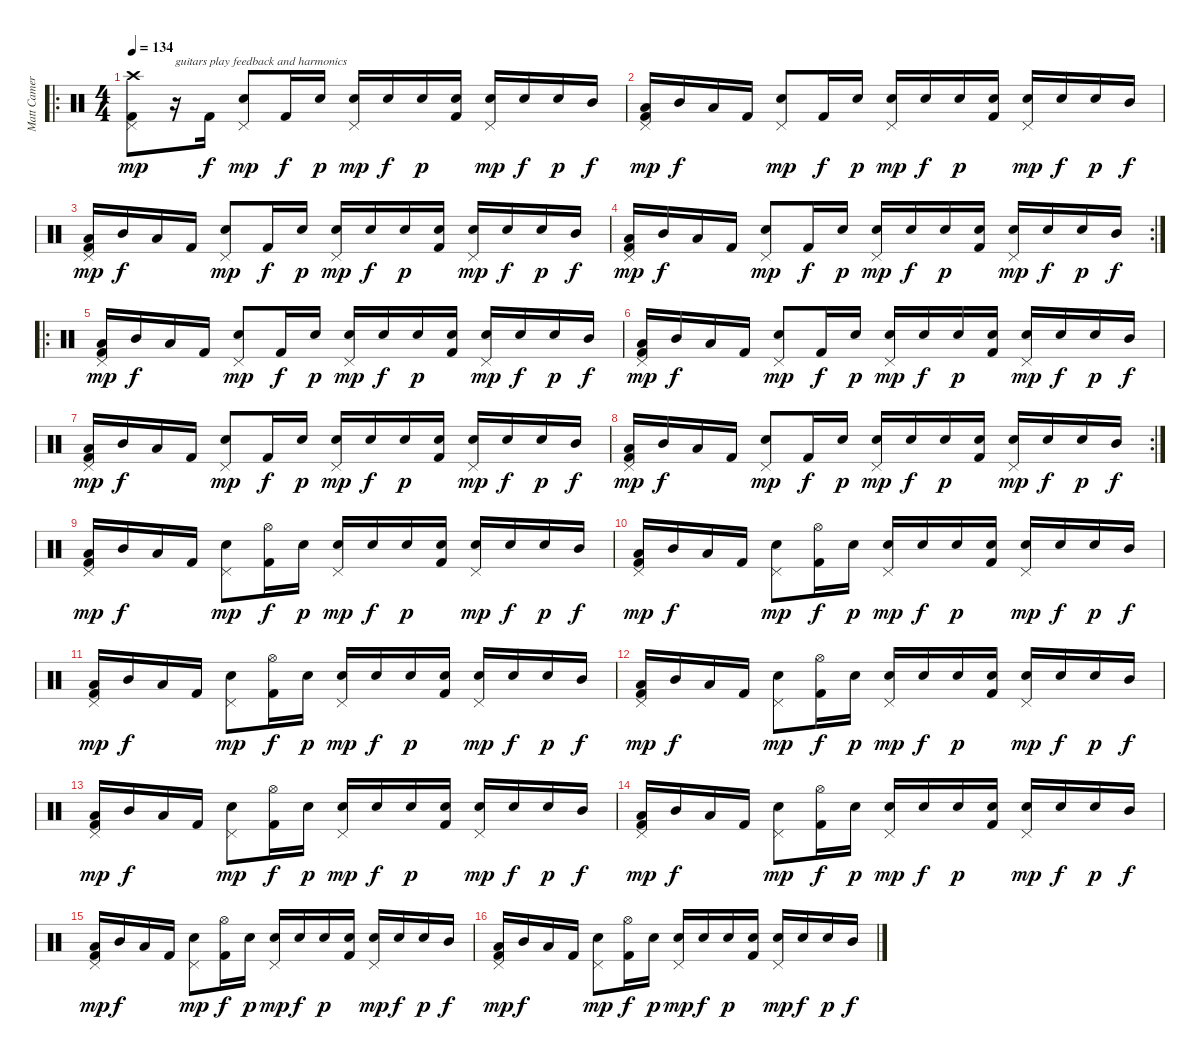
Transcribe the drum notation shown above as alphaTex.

\track ("Matt Cameron" "Matt Camer") {instrument percussion}
\staff {score}
\articulation defaults
\ro
\ts (4 4)
\tempo 134
\clef neutral
\ks c
("Crash high (hit)" "Pedal Hi-Hat (hit)" "Kick (hit) 2").8{dy mp} r.16{txt "guitars play feedback and harmonics"} "Kick (hit) 2".16{dy f} ("Electric Snare (hit)" "Pedal Hi-Hat (hit)").8{dy mp} "Kick (hit) 2".16{dy f} "Electric Snare (hit)".16{dy p} ("Electric Snare (hit)" "Pedal Hi-Hat (hit)").16{dy mp} "Electric Snare (hit)".16{dy f} "Electric Snare (hit)".16{dy p} ("Electric Snare (hit)" "Kick (hit) 2").16 ("Electric Snare (hit)" "Pedal Hi-Hat (hit)").16{dy mp} "Electric Snare (hit)".16{dy f} "Electric Snare (hit)".16{dy p} "Mid Tom (hit)".16{dy f} |
("Low Tom (hit)" "Pedal Hi-Hat (hit)" "Kick (hit) 2").16{dy mp} "Mid Tom (hit)".16{dy f} "Low Tom (hit)".16 "Kick (hit) 2".16 ("Electric Snare (hit)" "Pedal Hi-Hat (hit)").8{dy mp} "Kick (hit) 2".16{dy f} "Electric Snare (hit)".16{dy p} ("Electric Snare (hit)" "Pedal Hi-Hat (hit)").16{dy mp} "Electric Snare (hit)".16{dy f} "Electric Snare (hit)".16{dy p} ("Electric Snare (hit)" "Kick (hit) 2").16 ("Electric Snare (hit)" "Pedal Hi-Hat (hit)").16{dy mp} "Electric Snare (hit)".16{dy f} "Electric Snare (hit)".16{dy p} "Mid Tom (hit)".16{dy f} |
("Low Tom (hit)" "Pedal Hi-Hat (hit)" "Kick (hit) 2").16{dy mp} "Mid Tom (hit)".16{dy f} "Low Tom (hit)".16 "Kick (hit) 2".16 ("Electric Snare (hit)" "Pedal Hi-Hat (hit)").8{dy mp} "Kick (hit) 2".16{dy f} "Electric Snare (hit)".16{dy p} ("Electric Snare (hit)" "Pedal Hi-Hat (hit)").16{dy mp} "Electric Snare (hit)".16{dy f} "Electric Snare (hit)".16{dy p} ("Electric Snare (hit)" "Kick (hit) 2").16 ("Electric Snare (hit)" "Pedal Hi-Hat (hit)").16{dy mp} "Electric Snare (hit)".16{dy f} "Electric Snare (hit)".16{dy p} "Mid Tom (hit)".16{dy f} |
\rc 2
("Low Tom (hit)" "Pedal Hi-Hat (hit)" "Kick (hit) 2").16{dy mp} "Mid Tom (hit)".16{dy f} "Low Tom (hit)".16 "Kick (hit) 2".16 ("Electric Snare (hit)" "Pedal Hi-Hat (hit)").8{dy mp} "Kick (hit) 2".16{dy f} "Electric Snare (hit)".16{dy p} ("Electric Snare (hit)" "Pedal Hi-Hat (hit)").16{dy mp} "Electric Snare (hit)".16{dy f} "Electric Snare (hit)".16{dy p} ("Electric Snare (hit)" "Kick (hit) 2").16 ("Electric Snare (hit)" "Pedal Hi-Hat (hit)").16{dy mp} "Electric Snare (hit)".16{dy f} "Electric Snare (hit)".16{dy p} "Mid Tom (hit)".16{dy f} |
\ro
("Low Tom (hit)" "Pedal Hi-Hat (hit)" "Kick (hit) 2").16{dy mp} "Mid Tom (hit)".16{dy f} "Low Tom (hit)".16 "Kick (hit) 2".16 ("Electric Snare (hit)" "Pedal Hi-Hat (hit)").8{dy mp} "Kick (hit) 2".16{dy f} "Electric Snare (hit)".16{dy p} ("Electric Snare (hit)" "Pedal Hi-Hat (hit)").16{dy mp} "Electric Snare (hit)".16{dy f} "Electric Snare (hit)".16{dy p} ("Electric Snare (hit)" "Kick (hit) 2").16 ("Electric Snare (hit)" "Pedal Hi-Hat (hit)").16{dy mp} "Electric Snare (hit)".16{dy f} "Electric Snare (hit)".16{dy p} "Mid Tom (hit)".16{dy f} |
("Low Tom (hit)" "Pedal Hi-Hat (hit)" "Kick (hit) 2").16{dy mp} "Mid Tom (hit)".16{dy f} "Low Tom (hit)".16 "Kick (hit) 2".16 ("Electric Snare (hit)" "Pedal Hi-Hat (hit)").8{dy mp} "Kick (hit) 2".16{dy f} "Electric Snare (hit)".16{dy p} ("Electric Snare (hit)" "Pedal Hi-Hat (hit)").16{dy mp} "Electric Snare (hit)".16{dy f} "Electric Snare (hit)".16{dy p} ("Electric Snare (hit)" "Kick (hit) 2").16 ("Electric Snare (hit)" "Pedal Hi-Hat (hit)").16{dy mp} "Electric Snare (hit)".16{dy f} "Electric Snare (hit)".16{dy p} "Mid Tom (hit)".16{dy f} |
("Low Tom (hit)" "Pedal Hi-Hat (hit)" "Kick (hit) 2").16{dy mp} "Mid Tom (hit)".16{dy f} "Low Tom (hit)".16 "Kick (hit) 2".16 ("Electric Snare (hit)" "Pedal Hi-Hat (hit)").8{dy mp} "Kick (hit) 2".16{dy f} "Electric Snare (hit)".16{dy p} ("Electric Snare (hit)" "Pedal Hi-Hat (hit)").16{dy mp} "Electric Snare (hit)".16{dy f} "Electric Snare (hit)".16{dy p} ("Electric Snare (hit)" "Kick (hit) 2").16 ("Electric Snare (hit)" "Pedal Hi-Hat (hit)").16{dy mp} "Electric Snare (hit)".16{dy f} "Electric Snare (hit)".16{dy p} "Mid Tom (hit)".16{dy f} |
\rc 2
("Low Tom (hit)" "Pedal Hi-Hat (hit)" "Kick (hit) 2").16{dy mp} "Mid Tom (hit)".16{dy f} "Low Tom (hit)".16 "Kick (hit) 2".16 ("Electric Snare (hit)" "Pedal Hi-Hat (hit)").8{dy mp} "Kick (hit) 2".16{dy f} "Electric Snare (hit)".16{dy p} ("Electric Snare (hit)" "Pedal Hi-Hat (hit)").16{dy mp} "Electric Snare (hit)".16{dy f} "Electric Snare (hit)".16{dy p} ("Electric Snare (hit)" "Kick (hit) 2").16 ("Electric Snare (hit)" "Pedal Hi-Hat (hit)").16{dy mp} "Electric Snare (hit)".16{dy f} "Electric Snare (hit)".16{dy p} "Mid Tom (hit)".16{dy f} |
("Low Tom (hit)" "Pedal Hi-Hat (hit)" "Kick (hit) 2").16{dy mp} "Mid Tom (hit)".16{dy f} "Low Tom (hit)".16 "Kick (hit) 2".16 ("Electric Snare (hit)" "Pedal Hi-Hat (hit)").8{dy mp} ("Hi-Hat (open)" "Kick (hit) 2").16{dy f} "Electric Snare (hit)".16{dy p} ("Electric Snare (hit)" "Pedal Hi-Hat (hit)").16{dy mp} "Electric Snare (hit)".16{dy f} "Electric Snare (hit)".16{dy p} ("Electric Snare (hit)" "Kick (hit) 2").16 ("Electric Snare (hit)" "Pedal Hi-Hat (hit)").16{dy mp} "Electric Snare (hit)".16{dy f} "Electric Snare (hit)".16{dy p} "Mid Tom (hit)".16{dy f} |
("Low Tom (hit)" "Pedal Hi-Hat (hit)" "Kick (hit) 2").16{dy mp} "Mid Tom (hit)".16{dy f} "Low Tom (hit)".16 "Kick (hit) 2".16 ("Electric Snare (hit)" "Pedal Hi-Hat (hit)").8{dy mp} ("Hi-Hat (open)" "Kick (hit) 2").16{dy f} "Electric Snare (hit)".16{dy p} ("Electric Snare (hit)" "Pedal Hi-Hat (hit)").16{dy mp} "Electric Snare (hit)".16{dy f} "Electric Snare (hit)".16{dy p} ("Electric Snare (hit)" "Kick (hit) 2").16 ("Electric Snare (hit)" "Pedal Hi-Hat (hit)").16{dy mp} "Electric Snare (hit)".16{dy f} "Electric Snare (hit)".16{dy p} "Mid Tom (hit)".16{dy f} |
("Low Tom (hit)" "Pedal Hi-Hat (hit)" "Kick (hit) 2").16{dy mp} "Mid Tom (hit)".16{dy f} "Low Tom (hit)".16 "Kick (hit) 2".16 ("Electric Snare (hit)" "Pedal Hi-Hat (hit)").8{dy mp} ("Hi-Hat (open)" "Kick (hit) 2").16{dy f} "Electric Snare (hit)".16{dy p} ("Electric Snare (hit)" "Pedal Hi-Hat (hit)").16{dy mp} "Electric Snare (hit)".16{dy f} "Electric Snare (hit)".16{dy p} ("Electric Snare (hit)" "Kick (hit) 2").16 ("Electric Snare (hit)" "Pedal Hi-Hat (hit)").16{dy mp} "Electric Snare (hit)".16{dy f} "Electric Snare (hit)".16{dy p} "Mid Tom (hit)".16{dy f} |
("Low Tom (hit)" "Pedal Hi-Hat (hit)" "Kick (hit) 2").16{dy mp} "Mid Tom (hit)".16{dy f} "Low Tom (hit)".16 "Kick (hit) 2".16 ("Electric Snare (hit)" "Pedal Hi-Hat (hit)").8{dy mp} ("Hi-Hat (open)" "Kick (hit) 2").16{dy f} "Electric Snare (hit)".16{dy p} ("Electric Snare (hit)" "Pedal Hi-Hat (hit)").16{dy mp} "Electric Snare (hit)".16{dy f} "Electric Snare (hit)".16{dy p} ("Electric Snare (hit)" "Kick (hit) 2").16 ("Electric Snare (hit)" "Pedal Hi-Hat (hit)").16{dy mp} "Electric Snare (hit)".16{dy f} "Electric Snare (hit)".16{dy p} "Mid Tom (hit)".16{dy f} |
("Low Tom (hit)" "Pedal Hi-Hat (hit)" "Kick (hit) 2").16{dy mp} "Mid Tom (hit)".16{dy f} "Low Tom (hit)".16 "Kick (hit) 2".16 ("Electric Snare (hit)" "Pedal Hi-Hat (hit)").8{dy mp} ("Hi-Hat (open)" "Kick (hit) 2").16{dy f} "Electric Snare (hit)".16{dy p} ("Electric Snare (hit)" "Pedal Hi-Hat (hit)").16{dy mp} "Electric Snare (hit)".16{dy f} "Electric Snare (hit)".16{dy p} ("Electric Snare (hit)" "Kick (hit) 2").16 ("Electric Snare (hit)" "Pedal Hi-Hat (hit)").16{dy mp} "Electric Snare (hit)".16{dy f} "Electric Snare (hit)".16{dy p} "Mid Tom (hit)".16{dy f} |
("Low Tom (hit)" "Pedal Hi-Hat (hit)" "Kick (hit) 2").16{dy mp} "Mid Tom (hit)".16{dy f} "Low Tom (hit)".16 "Kick (hit) 2".16 ("Electric Snare (hit)" "Pedal Hi-Hat (hit)").8{dy mp} ("Hi-Hat (open)" "Kick (hit) 2").16{dy f} "Electric Snare (hit)".16{dy p} ("Electric Snare (hit)" "Pedal Hi-Hat (hit)").16{dy mp} "Electric Snare (hit)".16{dy f} "Electric Snare (hit)".16{dy p} ("Electric Snare (hit)" "Kick (hit) 2").16 ("Electric Snare (hit)" "Pedal Hi-Hat (hit)").16{dy mp} "Electric Snare (hit)".16{dy f} "Electric Snare (hit)".16{dy p} "Mid Tom (hit)".16{dy f} |
("Low Tom (hit)" "Pedal Hi-Hat (hit)" "Kick (hit) 2").16{dy mp} "Mid Tom (hit)".16{dy f} "Low Tom (hit)".16 "Kick (hit) 2".16 ("Electric Snare (hit)" "Pedal Hi-Hat (hit)").8{dy mp} ("Hi-Hat (open)" "Kick (hit) 2").16{dy f} "Electric Snare (hit)".16{dy p} ("Electric Snare (hit)" "Pedal Hi-Hat (hit)").16{dy mp} "Electric Snare (hit)".16{dy f} "Electric Snare (hit)".16{dy p} ("Electric Snare (hit)" "Kick (hit) 2").16 ("Electric Snare (hit)" "Pedal Hi-Hat (hit)").16{dy mp} "Electric Snare (hit)".16{dy f} "Electric Snare (hit)".16{dy p} "Mid Tom (hit)".16{dy f} |
("Low Tom (hit)" "Pedal Hi-Hat (hit)" "Kick (hit) 2").16{dy mp} "Mid Tom (hit)".16{dy f} "Low Tom (hit)".16 "Kick (hit) 2".16 ("Electric Snare (hit)" "Pedal Hi-Hat (hit)").8{dy mp} ("Hi-Hat (open)" "Kick (hit) 2").16{dy f} "Electric Snare (hit)".16{dy p} ("Electric Snare (hit)" "Pedal Hi-Hat (hit)").16{dy mp} "Electric Snare (hit)".16{dy f} "Electric Snare (hit)".16{dy p} ("Electric Snare (hit)" "Kick (hit) 2").16 ("Electric Snare (hit)" "Pedal Hi-Hat (hit)").16{dy mp} "Electric Snare (hit)".16{dy f} "Electric Snare (hit)".16{dy p} "Mid Tom (hit)".16{dy f}
